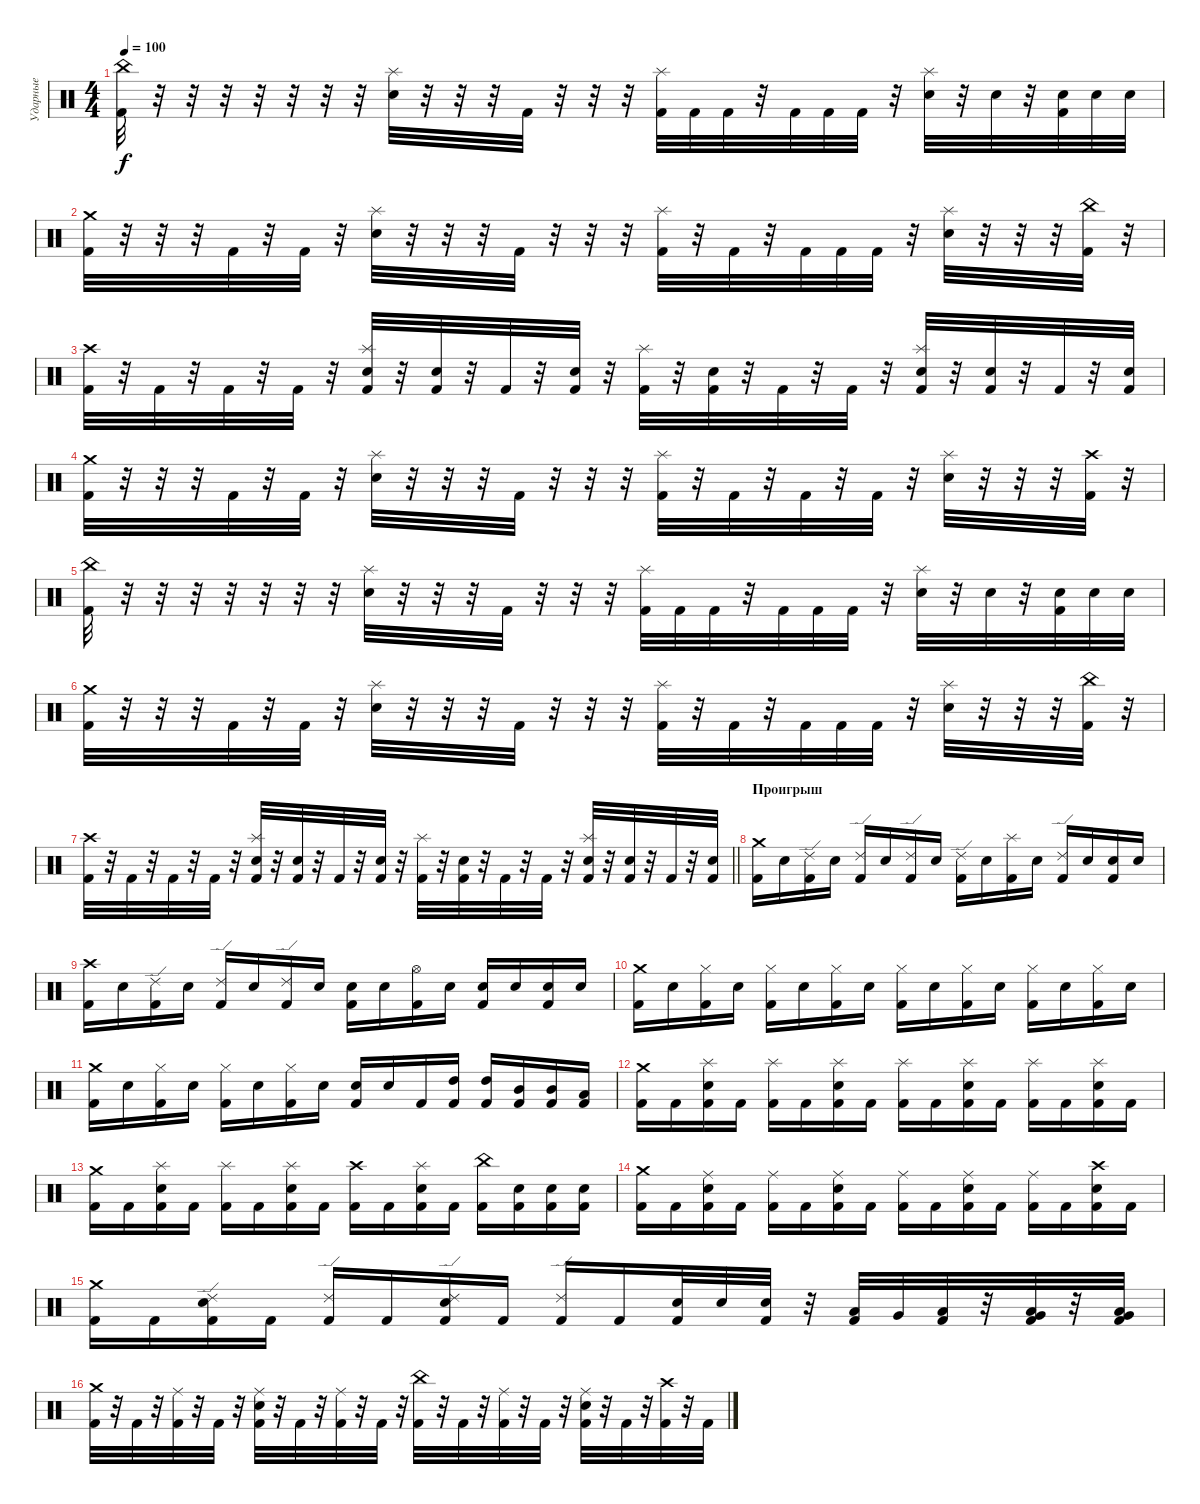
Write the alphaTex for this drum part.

\track ("Ударные" "Ударные") {instrument percussion}
\staff {score}
\articulation defaults
\ts (4 4)
\tempo 100
\clef neutral
\ks c
("China (hit)" "Kick (hit) 2").32{dy f} r.32 r.32 r.32 r.32 r.32 r.32 r.32 ("Splash (hit)" "Snare (hit) 2").32 r.32 r.32 r.32 "Kick (hit) 2".32 r.32 r.32 r.32 ("Splash (hit)" "Kick (hit) 2").32 "Kick (hit) 2".32 "Kick (hit) 2".32 r.32 "Kick (hit) 2".32 "Kick (hit) 2".32 "Kick (hit) 2".32 r.32 ("Splash (hit)" "Snare (hit) 2").32 r.32 "Snare (hit) 2".32 r.32 ("Snare (hit) 2" "Kick (hit) 2").32 "Snare (hit) 2".32 "Snare (hit) 2".32 |
("Crash medium (hit)" "Kick (hit) 2").32 r.32 r.32 r.32 "Kick (hit) 2".32 r.32 "Kick (hit) 2".32 r.32 ("Splash (hit)" "Snare (hit) 2").32 r.32 r.32 r.32 "Kick (hit) 2".32 r.32 r.32 r.32 ("Splash (hit)" "Kick (hit) 2").32 r.32 "Kick (hit) 2".32 r.32 "Kick (hit) 2".32 "Kick (hit) 2".32 "Kick (hit) 2".32 r.32 ("Splash (hit)" "Snare (hit) 2").32 r.32 r.32 r.32 ("China (hit)" "Kick (hit) 2").32 r.32 |
("Crash high (hit)" "Kick (hit) 2").32 r.32 "Kick (hit) 2".32 r.32 "Kick (hit) 2".32 r.32 "Kick (hit) 2".32 r.32 ("Splash (hit)" "Snare (hit) 2" "Kick (hit) 2").32 r.32 ("Snare (hit) 2" "Kick (hit) 2").32 r.32 "Kick (hit) 2".32 r.32 ("Snare (hit) 2" "Kick (hit) 2").32 r.32 ("Splash (hit)" "Kick (hit) 2").32 r.32 ("Snare (hit) 2" "Kick (hit) 2").32 r.32 "Kick (hit) 2".32 r.32 "Kick (hit) 2".32 r.32 ("Splash (hit)" "Snare (hit) 2" "Kick (hit) 2").32 r.32 ("Snare (hit) 2" "Kick (hit) 2").32 r.32 "Kick (hit) 2".32 r.32 ("Snare (hit) 2" "Kick (hit) 2").32 |
("Crash medium (hit)" "Kick (hit) 2").32 r.32 r.32 r.32 "Kick (hit) 2".32 r.32 "Kick (hit) 2".32 r.32 ("Splash (hit)" "Snare (hit) 2").32 r.32 r.32 r.32 "Kick (hit) 2".32 r.32 r.32 r.32 ("Splash (hit)" "Kick (hit) 2").32 r.32 "Kick (hit) 2".32 r.32 "Kick (hit) 2".32 r.32 "Kick (hit) 2".32 r.32 ("Splash (hit)" "Snare (hit) 2").32 r.32 r.32 r.32 ("Crash high (hit)" "Kick (hit) 2").32 r.32 |
("China (hit)" "Kick (hit) 2").32 r.32 r.32 r.32 r.32 r.32 r.32 r.32 ("Splash (hit)" "Snare (hit) 2").32 r.32 r.32 r.32 "Kick (hit) 2".32 r.32 r.32 r.32 ("Splash (hit)" "Kick (hit) 2").32 "Kick (hit) 2".32 "Kick (hit) 2".32 r.32 "Kick (hit) 2".32 "Kick (hit) 2".32 "Kick (hit) 2".32 r.32 ("Splash (hit)" "Snare (hit) 2").32 r.32 "Snare (hit) 2".32 r.32 ("Snare (hit) 2" "Kick (hit) 2").32 "Snare (hit) 2".32 "Snare (hit) 2".32 |
("Crash medium (hit)" "Kick (hit) 2").32 r.32 r.32 r.32 "Kick (hit) 2".32 r.32 "Kick (hit) 2".32 r.32 ("Splash (hit)" "Snare (hit) 2").32 r.32 r.32 r.32 "Kick (hit) 2".32 r.32 r.32 r.32 ("Splash (hit)" "Kick (hit) 2").32 r.32 "Kick (hit) 2".32 r.32 "Kick (hit) 2".32 "Kick (hit) 2".32 "Kick (hit) 2".32 r.32 ("Splash (hit)" "Snare (hit) 2").32 r.32 r.32 r.32 ("China (hit)" "Kick (hit) 2").32 r.32 |
\barLineRight lightlight
("Crash high (hit)" "Kick (hit) 2").32 r.32 "Kick (hit) 2".32 r.32 "Kick (hit) 2".32 r.32 "Kick (hit) 2".32 r.32 ("Splash (hit)" "Snare (hit) 2" "Kick (hit) 2").32 r.32 ("Snare (hit) 2" "Kick (hit) 2").32 r.32 "Kick (hit) 2".32 r.32 ("Snare (hit) 2" "Kick (hit) 2").32 r.32 ("Splash (hit)" "Kick (hit) 2").32 r.32 ("Snare (hit) 2" "Kick (hit) 2").32 r.32 "Kick (hit) 2".32 r.32 "Kick (hit) 2".32 r.32 ("Splash (hit)" "Snare (hit) 2" "Kick (hit) 2").32 r.32 ("Snare (hit) 2" "Kick (hit) 2").32 r.32 "Kick (hit) 2".32 r.32 ("Snare (hit) 2" "Kick (hit) 2").32 |
\section ("" "Проигрыш")
("Crash medium (hit)" "Kick (hit) 2").16 "Snare (hit) 2".16 ("Ride (edge) 2" "Kick (hit) 2").16 "Snare (hit) 2".16 ("Ride (edge) 2" "Kick (hit) 2").16 "Snare (hit) 2".16 ("Ride (edge) 2" "Kick (hit) 2").16 "Snare (hit) 2".16 ("Ride (edge) 2" "Kick (hit) 2").16 "Snare (hit) 2".16 ("Splash (hit)" "Kick (hit) 2").16 "Snare (hit) 2".16 ("Ride (edge) 2" "Kick (hit) 2").16 "Snare (hit) 2".16 ("Snare (hit) 2" "Kick (hit) 2").16 "Snare (hit) 2".16 |
("Crash high (hit)" "Kick (hit) 2").16 "Snare (hit) 2".16 ("Ride (edge) 2" "Kick (hit) 2").16 "Snare (hit) 2".16 ("Ride (edge) 2" "Kick (hit) 2").16 "Snare (hit) 2".16 ("Ride (edge) 2" "Kick (hit) 2").16 "Snare (hit) 2".16 ("Snare (hit) 2" "Kick (hit) 2").16 "Snare (hit) 2".16 ("Hi-Hat (open)" "Kick (hit) 2").16 "Snare (hit) 2".16 ("Snare (hit) 2" "Kick (hit) 2").16 "Snare (hit) 2".16 ("Snare (hit) 2" "Kick (hit) 2").16 "Snare (hit) 2".16 |
("Crash medium (hit)" "Kick (hit) 2").16 "Snare (hit) 2".16 ("Hi-Hat (closed)" "Kick (hit) 2").16 "Snare (hit) 2".16 ("Hi-Hat (closed)" "Kick (hit) 2").16 "Snare (hit) 2".16 ("Hi-Hat (closed)" "Kick (hit) 2").16 "Snare (hit) 2".16 ("Hi-Hat (closed)" "Kick (hit) 2").16 "Snare (hit) 2".16 ("Hi-Hat (closed)" "Kick (hit) 2").16 "Snare (hit) 2".16 ("Hi-Hat (closed)" "Kick (hit) 2").16 "Snare (hit) 2".16 ("Hi-Hat (closed)" "Kick (hit) 2").16 "Snare (hit) 2".16 |
("Crash medium (hit)" "Kick (hit) 2").16 "Snare (hit) 2".16 ("Hi-Hat (closed)" "Kick (hit) 2").16 "Snare (hit) 2".16 ("Hi-Hat (closed)" "Kick (hit) 2").16 "Snare (hit) 2".16 ("Hi-Hat (closed)" "Kick (hit) 2").16 "Snare (hit) 2".16 ("Snare (hit) 2" "Kick (hit) 2").16 "Snare (hit) 2".16 "Kick (hit) 2".16 ("High Tom (hit)" "Kick (hit) 2").16 ("High Tom (hit)" "Kick (hit) 2").16 ("Mid Tom (hit)" "Kick (hit) 2").16 ("Mid Tom (hit)" "Kick (hit) 2").16 ("Low Tom (hit)" "Kick (hit) 2").16 |
("Crash medium (hit)" "Kick (hit) 2").16 "Kick (hit) 2".16 ("Splash (hit)" "Snare (hit) 2" "Kick (hit) 2").16 "Kick (hit) 2".16 ("Splash (hit)" "Kick (hit) 2").16 "Kick (hit) 2".16 ("Splash (hit)" "Snare (hit) 2" "Kick (hit) 2").16 "Kick (hit) 2".16 ("Splash (hit)" "Kick (hit) 2").16 "Kick (hit) 2".16 ("Splash (hit)" "Snare (hit) 2" "Kick (hit) 2").16 "Kick (hit) 2".16 ("Splash (hit)" "Kick (hit) 2").16 "Kick (hit) 2".16 ("Splash (hit)" "Snare (hit) 2" "Kick (hit) 2").16 "Kick (hit) 2".16 |
("Crash medium (hit)" "Kick (hit) 2").16 "Kick (hit) 2".16 ("Splash (hit)" "Snare (hit) 2" "Kick (hit) 2").16 "Kick (hit) 2".16 ("Splash (hit)" "Kick (hit) 2").16 "Kick (hit) 2".16 ("Splash (hit)" "Snare (hit) 2" "Kick (hit) 2").16 "Kick (hit) 2".16 ("Crash high (hit)" "Kick (hit) 2").16 "Kick (hit) 2".16 ("Splash (hit)" "Snare (hit) 2" "Kick (hit) 2").16 "Kick (hit) 2".16 ("China (hit)" "Kick (hit) 2").16 ("Snare (hit) 2" "Kick (hit) 2").16 ("Snare (hit) 2" "Kick (hit) 2").16 ("Snare (hit) 2" "Kick (hit) 2").16 |
("Crash medium (hit)" "Kick (hit) 2").16 "Kick (hit) 2".16 ("Ride (middle)" "Snare (hit) 2" "Kick (hit) 2").16 "Kick (hit) 2".16 ("Ride (middle)" "Kick (hit) 2").16 "Kick (hit) 2".16 ("Ride (middle)" "Snare (hit) 2" "Kick (hit) 2").16 "Kick (hit) 2".16 ("Ride (middle)" "Kick (hit) 2").16 "Kick (hit) 2".16 ("Ride (middle)" "Snare (hit) 2" "Kick (hit) 2").16 "Kick (hit) 2".16 ("Ride (middle)" "Kick (hit) 2").16 "Kick (hit) 2".16 ("Crash high (hit)" "Snare (hit) 2" "Kick (hit) 2").16 "Kick (hit) 2".16 |
("Crash medium (hit)" "Kick (hit) 2").16 "Kick (hit) 2".16 ("Ride (edge) 2" "Snare (hit) 2" "Kick (hit) 2").16 "Kick (hit) 2".16 ("Ride (edge) 2" "Kick (hit) 2").16 "Kick (hit) 2".16 ("Ride (edge) 2" "Snare (hit) 2" "Kick (hit) 2").16 "Kick (hit) 2".16 ("Ride (edge) 2" "Kick (hit) 2").16 "Kick (hit) 2".16 ("Snare (hit) 2" "Kick (hit) 2").32 "Snare (hit) 2".32 ("Snare (hit) 2" "Kick (hit) 2").32 r.32 ("Low Tom (hit)" "Kick (hit) 2").32 "Very Low Tom (hit)".32 ("Low Tom (hit)" "Kick (hit) 2").32 r.32 ("Low Tom (hit)" "Very Low Tom (hit)" "Kick (hit) 2").32 r.32 ("Very Low Tom (hit)" "Low Floor Tom (hit)" "Kick (hit) 2").32 |
("Crash medium (hit)" "Kick (hit) 2").32 r.32 "Kick (hit) 2".32 r.32 ("Ride (middle)" "Kick (hit) 2").32 r.32 "Kick (hit) 2".32 r.32 ("Ride (middle)" "Snare (hit) 2" "Kick (hit) 2").32 r.32 "Kick (hit) 2".32 r.32 ("Ride (middle)" "Kick (hit) 2").32 r.32 "Kick (hit) 2".32 r.32 ("China (hit)" "Kick (hit) 2").32 r.32 "Kick (hit) 2".32 r.32 ("Ride (middle)" "Kick (hit) 2").32 r.32 "Kick (hit) 2".32 r.32 ("Ride (middle)" "Snare (hit) 2" "Kick (hit) 2").32 r.32 "Kick (hit) 2".32 r.32 ("Crash high (hit)" "Kick (hit) 2").32 r.32 "Kick (hit) 2".32
